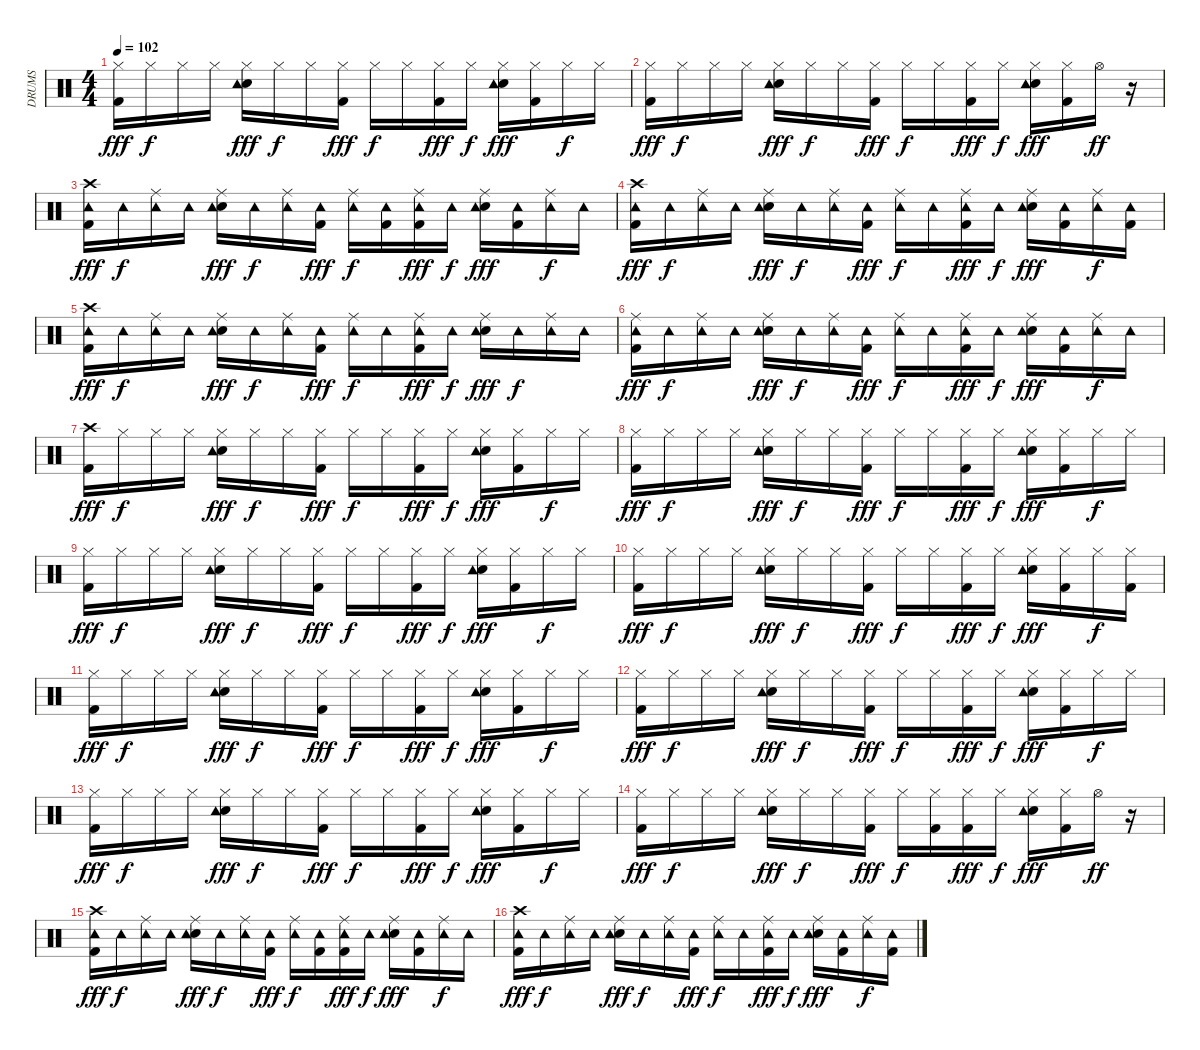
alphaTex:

\track ("DRUMS" "DRUMS") {instrument percussion}
\staff {score}
\articulation defaults
\ts (4 4)
\tempo 102
\clef neutral
\ks c
("Hi-Hat (closed)" "Kick (hit) 2").16{dy fff} "Hi-Hat (closed)".16{dy f} "Hi-Hat (closed)".16 "Hi-Hat (closed)".16 ("Hi-Hat (closed)" "Snare (hit) 2" "Tambourine (hit)").16{dy fff} "Hi-Hat (closed)".16{dy f} "Hi-Hat (closed)".16 ("Hi-Hat (closed)" "Kick (hit) 2").16{dy fff} "Hi-Hat (closed)".16{dy f} "Hi-Hat (closed)".16 ("Hi-Hat (closed)" "Kick (hit) 2").16{dy fff} "Hi-Hat (closed)".16{dy f} ("Hi-Hat (closed)" "Snare (hit) 2" "Tambourine (hit)").16{dy fff} ("Hi-Hat (closed)" "Kick (hit) 2").16 "Hi-Hat (closed)".16{dy f} "Hi-Hat (closed)".16 |
("Hi-Hat (closed)" "Kick (hit) 2").16{dy fff} "Hi-Hat (closed)".16{dy f} "Hi-Hat (closed)".16 "Hi-Hat (closed)".16 ("Hi-Hat (closed)" "Snare (hit) 2" "Tambourine (hit)").16{dy fff} "Hi-Hat (closed)".16{dy f} "Hi-Hat (closed)".16 ("Hi-Hat (closed)" "Kick (hit) 2").16{dy fff} "Hi-Hat (closed)".16{dy f} "Hi-Hat (closed)".16 ("Hi-Hat (closed)" "Kick (hit) 2").16{dy fff} "Hi-Hat (closed)".16{dy f} ("Hi-Hat (closed)" "Snare (hit) 2" "Tambourine (hit)").16{dy fff} ("Hi-Hat (closed)" "Kick (hit) 2").16 "Hi-Hat (open)".16{dy ff} r.16 |
("Kick (hit) 2" "Crash high (hit)" "Tambourine (hit)").16{dy fff} "Tambourine (hit)".16{dy f} ("Ride (middle)" "Tambourine (hit)").16 "Tambourine (hit)".16 ("Snare (hit) 2" "Ride (middle)" "Tambourine (hit)").16{dy fff} "Tambourine (hit)".16{dy f} ("Ride (middle)" "Tambourine (hit)").16 ("Kick (hit) 2" "Tambourine (hit)").16{dy fff} ("Ride (middle)" "Tambourine (hit)").16{dy f} ("Kick (hit) 2" "Tambourine (hit)").16 ("Ride (middle)" "Kick (hit) 2" "Tambourine (hit)").16{dy fff} "Tambourine (hit)".16{dy f} ("Snare (hit) 2" "Ride (middle)" "Tambourine (hit)").16{dy fff} ("Kick (hit) 2" "Tambourine (hit)").16 ("Ride (middle)" "Tambourine (hit)").16{dy f} "Tambourine (hit)".16 |
("Kick (hit) 2" "Crash high (hit)" "Tambourine (hit)").16{dy fff} "Tambourine (hit)".16{dy f} ("Ride (middle)" "Tambourine (hit)").16 "Tambourine (hit)".16 ("Snare (hit) 2" "Ride (middle)" "Tambourine (hit)").16{dy fff} "Tambourine (hit)".16{dy f} ("Ride (middle)" "Tambourine (hit)").16 ("Kick (hit) 2" "Tambourine (hit)").16{dy fff} ("Ride (middle)" "Tambourine (hit)").16{dy f} "Tambourine (hit)".16 ("Kick (hit) 2" "Ride (middle)" "Tambourine (hit)").16{dy fff} "Tambourine (hit)".16{dy f} ("Snare (hit) 2" "Ride (middle)" "Tambourine (hit)").16{dy fff} ("Kick (hit) 2" "Tambourine (hit)").16 ("Ride (middle)" "Tambourine (hit)").16{dy f} ("Kick (hit) 2" "Tambourine (hit)").16 |
("Kick (hit) 2" "Crash high (hit)" "Tambourine (hit)").16{dy fff} "Tambourine (hit)".16{dy f} ("Ride (middle)" "Tambourine (hit)").16 "Tambourine (hit)".16 ("Snare (hit) 2" "Ride (middle)" "Tambourine (hit)").16{dy fff} "Tambourine (hit)".16{dy f} ("Ride (middle)" "Tambourine (hit)").16 ("Kick (hit) 2" "Tambourine (hit)").16{dy fff} ("Ride (middle)" "Tambourine (hit)").16{dy f} "Tambourine (hit)".16 ("Ride (middle)" "Kick (hit) 2" "Tambourine (hit)").16{dy fff} "Tambourine (hit)".16{dy f} ("Snare (hit) 2" "Ride (middle)" "Tambourine (hit)").16{dy fff} "Tambourine (hit)".16{dy f} ("Ride (middle)" "Tambourine (hit)").16 "Tambourine (hit)".16 |
("Kick (hit) 2" "Ride (middle)" "Tambourine (hit)").16{dy fff} "Tambourine (hit)".16{dy f} ("Ride (middle)" "Tambourine (hit)").16 "Tambourine (hit)".16 ("Snare (hit) 2" "Ride (middle)" "Tambourine (hit)").16{dy fff} "Tambourine (hit)".16{dy f} ("Ride (middle)" "Tambourine (hit)").16 ("Kick (hit) 2" "Tambourine (hit)").16{dy fff} ("Ride (middle)" "Tambourine (hit)").16{dy f} "Tambourine (hit)".16 ("Ride (middle)" "Kick (hit) 2" "Tambourine (hit)").16{dy fff} "Tambourine (hit)".16{dy f} ("Snare (hit) 2" "Ride (middle)" "Tambourine (hit)").16{dy fff} ("Kick (hit) 2" "Tambourine (hit)").16 ("Ride (middle)" "Tambourine (hit)").16{dy f} "Tambourine (hit)".16 |
("Crash high (hit)" "Kick (hit) 2").16{dy fff} "Hi-Hat (closed)".16{dy f} "Hi-Hat (closed)".16 "Hi-Hat (closed)".16 ("Hi-Hat (closed)" "Snare (hit) 2" "Tambourine (hit)").16{dy fff} "Hi-Hat (closed)".16{dy f} "Hi-Hat (closed)".16 ("Hi-Hat (closed)" "Kick (hit) 2").16{dy fff} "Hi-Hat (closed)".16{dy f} "Hi-Hat (closed)".16 ("Hi-Hat (closed)" "Kick (hit) 2").16{dy fff} "Hi-Hat (closed)".16{dy f} ("Hi-Hat (closed)" "Snare (hit) 2" "Tambourine (hit)").16{dy fff} ("Hi-Hat (closed)" "Kick (hit) 2").16 "Hi-Hat (closed)".16{dy f} "Hi-Hat (closed)".16 |
("Hi-Hat (closed)" "Kick (hit) 2").16{dy fff} "Hi-Hat (closed)".16{dy f} "Hi-Hat (closed)".16 "Hi-Hat (closed)".16 ("Hi-Hat (closed)" "Snare (hit) 2" "Tambourine (hit)").16{dy fff} "Hi-Hat (closed)".16{dy f} "Hi-Hat (closed)".16 ("Hi-Hat (closed)" "Kick (hit) 2").16{dy fff} "Hi-Hat (closed)".16{dy f} "Hi-Hat (closed)".16 ("Hi-Hat (closed)" "Kick (hit) 2").16{dy fff} "Hi-Hat (closed)".16{dy f} ("Hi-Hat (closed)" "Snare (hit) 2" "Tambourine (hit)").16{dy fff} ("Hi-Hat (closed)" "Kick (hit) 2").16 "Hi-Hat (closed)".16{dy f} "Hi-Hat (closed)".16 |
("Hi-Hat (closed)" "Kick (hit) 2").16{dy fff} "Hi-Hat (closed)".16{dy f} "Hi-Hat (closed)".16 "Hi-Hat (closed)".16 ("Hi-Hat (closed)" "Snare (hit) 2" "Tambourine (hit)").16{dy fff} "Hi-Hat (closed)".16{dy f} "Hi-Hat (closed)".16 ("Hi-Hat (closed)" "Kick (hit) 2").16{dy fff} "Hi-Hat (closed)".16{dy f} "Hi-Hat (closed)".16 ("Hi-Hat (closed)" "Kick (hit) 2").16{dy fff} "Hi-Hat (closed)".16{dy f} ("Hi-Hat (closed)" "Snare (hit) 2" "Tambourine (hit)").16{dy fff} ("Hi-Hat (closed)" "Kick (hit) 2").16 "Hi-Hat (closed)".16{dy f} "Hi-Hat (closed)".16 |
("Hi-Hat (closed)" "Kick (hit) 2").16{dy fff} "Hi-Hat (closed)".16{dy f} "Hi-Hat (closed)".16 "Hi-Hat (closed)".16 ("Hi-Hat (closed)" "Snare (hit) 2" "Tambourine (hit)").16{dy fff} "Hi-Hat (closed)".16{dy f} "Hi-Hat (closed)".16 ("Hi-Hat (closed)" "Kick (hit) 2").16{dy fff} "Hi-Hat (closed)".16{dy f} "Hi-Hat (closed)".16 ("Hi-Hat (closed)" "Kick (hit) 2").16{dy fff} "Hi-Hat (closed)".16{dy f} ("Hi-Hat (closed)" "Snare (hit) 2" "Tambourine (hit)").16{dy fff} ("Hi-Hat (closed)" "Kick (hit) 2").16 "Hi-Hat (closed)".16{dy f} ("Hi-Hat (closed)" "Kick (hit) 2").16 |
("Hi-Hat (closed)" "Kick (hit) 2").16{dy fff} "Hi-Hat (closed)".16{dy f} "Hi-Hat (closed)".16 "Hi-Hat (closed)".16 ("Hi-Hat (closed)" "Snare (hit) 2" "Tambourine (hit)").16{dy fff} "Hi-Hat (closed)".16{dy f} "Hi-Hat (closed)".16 ("Hi-Hat (closed)" "Kick (hit) 2").16{dy fff} "Hi-Hat (closed)".16{dy f} "Hi-Hat (closed)".16 ("Hi-Hat (closed)" "Kick (hit) 2").16{dy fff} "Hi-Hat (closed)".16{dy f} ("Hi-Hat (closed)" "Snare (hit) 2" "Tambourine (hit)").16{dy fff} ("Hi-Hat (closed)" "Kick (hit) 2").16 "Hi-Hat (closed)".16{dy f} "Hi-Hat (closed)".16 |
("Hi-Hat (closed)" "Kick (hit) 2").16{dy fff} "Hi-Hat (closed)".16{dy f} "Hi-Hat (closed)".16 "Hi-Hat (closed)".16 ("Hi-Hat (closed)" "Snare (hit) 2" "Tambourine (hit)").16{dy fff} "Hi-Hat (closed)".16{dy f} "Hi-Hat (closed)".16 ("Hi-Hat (closed)" "Kick (hit) 2").16{dy fff} "Hi-Hat (closed)".16{dy f} "Hi-Hat (closed)".16 ("Hi-Hat (closed)" "Kick (hit) 2").16{dy fff} "Hi-Hat (closed)".16{dy f} ("Hi-Hat (closed)" "Snare (hit) 2" "Tambourine (hit)").16{dy fff} ("Hi-Hat (closed)" "Kick (hit) 2").16 "Hi-Hat (closed)".16{dy f} "Hi-Hat (closed)".16 |
("Hi-Hat (closed)" "Kick (hit) 2").16{dy fff} "Hi-Hat (closed)".16{dy f} "Hi-Hat (closed)".16 "Hi-Hat (closed)".16 ("Hi-Hat (closed)" "Snare (hit) 2" "Tambourine (hit)").16{dy fff} "Hi-Hat (closed)".16{dy f} "Hi-Hat (closed)".16 ("Hi-Hat (closed)" "Kick (hit) 2").16{dy fff} "Hi-Hat (closed)".16{dy f} "Hi-Hat (closed)".16 ("Hi-Hat (closed)" "Kick (hit) 2").16{dy fff} "Hi-Hat (closed)".16{dy f} ("Hi-Hat (closed)" "Snare (hit) 2" "Tambourine (hit)").16{dy fff} ("Hi-Hat (closed)" "Kick (hit) 2").16 "Hi-Hat (closed)".16{dy f} "Hi-Hat (closed)".16 |
("Hi-Hat (closed)" "Kick (hit) 2").16{dy fff} "Hi-Hat (closed)".16{dy f} "Hi-Hat (closed)".16 "Hi-Hat (closed)".16 ("Hi-Hat (closed)" "Snare (hit) 2" "Tambourine (hit)").16{dy fff} "Hi-Hat (closed)".16{dy f} "Hi-Hat (closed)".16 ("Hi-Hat (closed)" "Kick (hit) 2").16{dy fff} "Hi-Hat (closed)".16{dy f} ("Kick (hit) 2" "Hi-Hat (closed)").16 ("Hi-Hat (closed)" "Kick (hit) 2").16{dy fff} "Hi-Hat (closed)".16{dy f} ("Hi-Hat (closed)" "Snare (hit) 2" "Tambourine (hit)").16{dy fff} ("Hi-Hat (closed)" "Kick (hit) 2").16 "Hi-Hat (open)".16{dy ff} r.16 |
("Kick (hit) 2" "Crash high (hit)" "Tambourine (hit)").16{dy fff} "Tambourine (hit)".16{dy f} ("Ride (middle)" "Tambourine (hit)").16 "Tambourine (hit)".16 ("Snare (hit) 2" "Ride (middle)" "Tambourine (hit)").16{dy fff} "Tambourine (hit)".16{dy f} ("Ride (middle)" "Tambourine (hit)").16 ("Kick (hit) 2" "Tambourine (hit)").16{dy fff} ("Ride (middle)" "Tambourine (hit)").16{dy f} ("Kick (hit) 2" "Tambourine (hit)").16 ("Ride (middle)" "Kick (hit) 2" "Tambourine (hit)").16{dy fff} "Tambourine (hit)".16{dy f} ("Snare (hit) 2" "Ride (middle)" "Tambourine (hit)").16{dy fff} ("Kick (hit) 2" "Tambourine (hit)").16 ("Ride (middle)" "Tambourine (hit)").16{dy f} "Tambourine (hit)".16 |
("Kick (hit) 2" "Crash high (hit)" "Tambourine (hit)").16{dy fff} "Tambourine (hit)".16{dy f} ("Ride (middle)" "Tambourine (hit)").16 "Tambourine (hit)".16 ("Snare (hit) 2" "Ride (middle)" "Tambourine (hit)").16{dy fff} "Tambourine (hit)".16{dy f} ("Ride (middle)" "Tambourine (hit)").16 ("Kick (hit) 2" "Tambourine (hit)").16{dy fff} ("Ride (middle)" "Tambourine (hit)").16{dy f} "Tambourine (hit)".16 ("Kick (hit) 2" "Ride (middle)" "Tambourine (hit)").16{dy fff} "Tambourine (hit)".16{dy f} ("Snare (hit) 2" "Ride (middle)" "Tambourine (hit)").16{dy fff} ("Kick (hit) 2" "Tambourine (hit)").16 ("Ride (middle)" "Tambourine (hit)").16{dy f} ("Kick (hit) 2" "Tambourine (hit)").16
